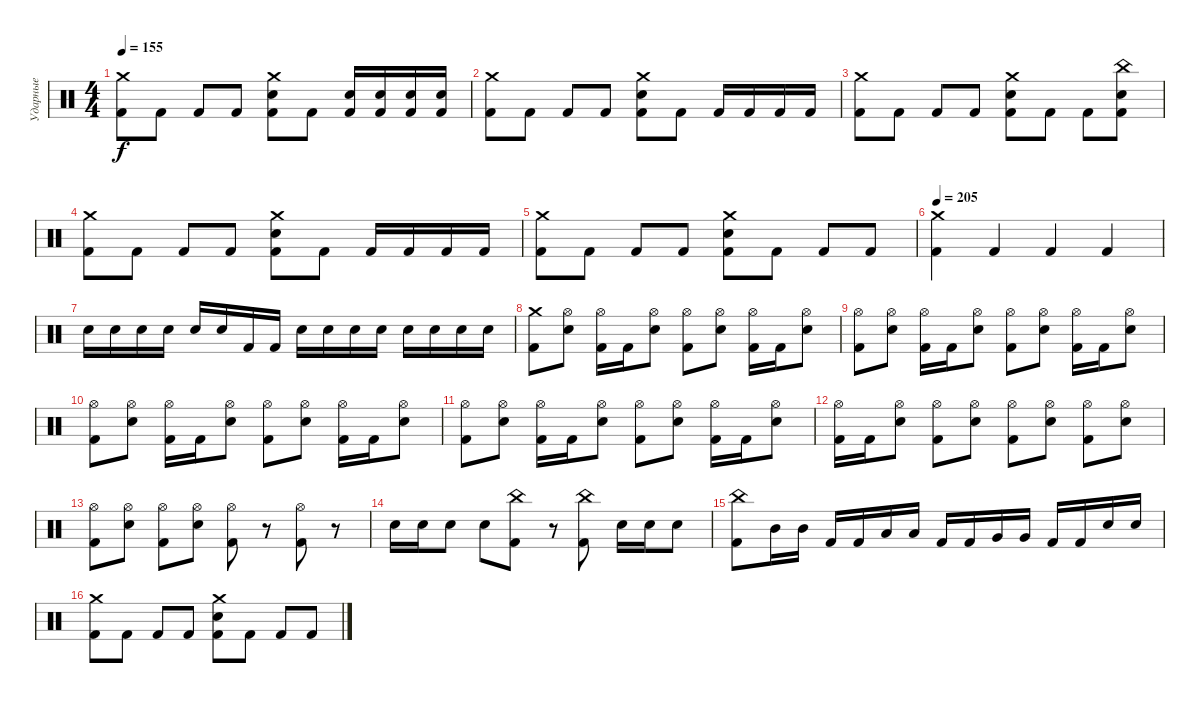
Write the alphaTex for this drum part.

\track ("Ударные" "Ударные") {instrument percussion}
\staff {score}
\articulation defaults
\ts (4 4)
\tempo 155
\clef neutral
\ks c
("Crash medium (hit)" "Kick (hit) 2").8{dy f} "Kick (hit) 2".8 "Kick (hit) 2".8 "Kick (hit) 2".8 ("Crash medium (hit)" "Electric Snare (hit)" "Kick (hit) 2").8 "Kick (hit) 2".8 ("Electric Snare (hit)" "Kick (hit) 2").16 ("Electric Snare (hit)" "Kick (hit) 2").16 ("Electric Snare (hit)" "Kick (hit) 2").16 ("Electric Snare (hit)" "Kick (hit) 2").16 |
("Crash medium (hit)" "Kick (hit) 2").8 "Kick (hit) 2".8 "Kick (hit) 2".8 "Kick (hit) 2".8 ("Crash medium (hit)" "Electric Snare (hit)" "Kick (hit) 2").8 "Kick (hit) 2".8 "Kick (hit) 2".16 "Kick (hit) 2".16 "Kick (hit) 2".16 "Kick (hit) 2".16 |
("Crash medium (hit)" "Kick (hit) 2").8 "Kick (hit) 2".8 "Kick (hit) 2".8 "Kick (hit) 2".8 ("Crash medium (hit)" "Electric Snare (hit)" "Kick (hit) 2").8 "Kick (hit) 2".8 "Kick (hit) 2".8 ("China (hit)" "Electric Snare (hit)" "Kick (hit) 2").8 |
("Crash medium (hit)" "Kick (hit) 2").8 "Kick (hit) 2".8 "Kick (hit) 2".8 "Kick (hit) 2".8 ("Crash medium (hit)" "Electric Snare (hit)" "Kick (hit) 2").8 "Kick (hit) 2".8 "Kick (hit) 2".16 "Kick (hit) 2".16 "Kick (hit) 2".16 "Kick (hit) 2".16 |
("Crash medium (hit)" "Kick (hit) 2").8 "Kick (hit) 2".8 "Kick (hit) 2".8 "Kick (hit) 2".8 ("Crash medium (hit)" "Electric Snare (hit)" "Kick (hit) 2").8 "Kick (hit) 2".8 "Kick (hit) 2".8 "Kick (hit) 2".8 |
\tempo 200
\tempo 205
("Crash medium (hit)" "Kick (hit) 2").4 "Kick (hit) 2".4 "Kick (hit) 2".4 "Kick (hit) 2".4 |
"Electric Snare (hit)".16 "Electric Snare (hit)".16 "Electric Snare (hit)".16 "Electric Snare (hit)".16 "Electric Snare (hit)".16 "Electric Snare (hit)".16 "Kick (hit) 2".16 "Kick (hit) 2".16 "Electric Snare (hit)".16 "Electric Snare (hit)".16 "Electric Snare (hit)".16 "Electric Snare (hit)".16 "Electric Snare (hit)".16 "Electric Snare (hit)".16 "Electric Snare (hit)".16 "Electric Snare (hit)".16 |
("Crash medium (hit)" "Kick (hit) 2").8 ("Hi-Hat (open)" "Electric Snare (hit)").8 ("Hi-Hat (open)" "Kick (hit) 2").16 "Kick (hit) 2".16 ("Hi-Hat (open)" "Electric Snare (hit)").8 ("Hi-Hat (open)" "Kick (hit) 2").8 ("Hi-Hat (open)" "Electric Snare (hit)").8 ("Hi-Hat (open)" "Kick (hit) 2").16 "Kick (hit) 2".16 ("Hi-Hat (open)" "Electric Snare (hit)").8 |
("Hi-Hat (open)" "Kick (hit) 2").8 ("Hi-Hat (open)" "Electric Snare (hit)").8 ("Hi-Hat (open)" "Kick (hit) 2").16 "Kick (hit) 2".16 ("Hi-Hat (open)" "Electric Snare (hit)").8 ("Hi-Hat (open)" "Kick (hit) 2").8 ("Hi-Hat (open)" "Electric Snare (hit)").8 ("Hi-Hat (open)" "Kick (hit) 2").16 "Kick (hit) 2".16 ("Hi-Hat (open)" "Electric Snare (hit)").8 |
("Hi-Hat (open)" "Kick (hit) 2").8 ("Hi-Hat (open)" "Electric Snare (hit)").8 ("Hi-Hat (open)" "Kick (hit) 2").16 "Kick (hit) 2".16 ("Hi-Hat (open)" "Electric Snare (hit)").8 ("Hi-Hat (open)" "Kick (hit) 2").8 ("Hi-Hat (open)" "Electric Snare (hit)").8 ("Hi-Hat (open)" "Kick (hit) 2").16 "Kick (hit) 2".16 ("Hi-Hat (open)" "Electric Snare (hit)").8 |
("Hi-Hat (open)" "Kick (hit) 2").8 ("Hi-Hat (open)" "Electric Snare (hit)").8 ("Hi-Hat (open)" "Kick (hit) 2").16 "Kick (hit) 2".16 ("Hi-Hat (open)" "Electric Snare (hit)").8 ("Hi-Hat (open)" "Kick (hit) 2").8 ("Hi-Hat (open)" "Electric Snare (hit)").8 ("Hi-Hat (open)" "Kick (hit) 2").16 "Kick (hit) 2".16 ("Hi-Hat (open)" "Electric Snare (hit)").8 |
("Hi-Hat (open)" "Kick (hit) 2").16 "Kick (hit) 2".16 ("Hi-Hat (open)" "Electric Snare (hit)").8 ("Hi-Hat (open)" "Kick (hit) 2").8 ("Hi-Hat (open)" "Electric Snare (hit)").8 ("Hi-Hat (open)" "Kick (hit) 2").8 ("Hi-Hat (open)" "Electric Snare (hit)").8 ("Hi-Hat (open)" "Kick (hit) 2").8 ("Hi-Hat (open)" "Electric Snare (hit)").8 |
("Hi-Hat (open)" "Kick (hit) 2").8 ("Hi-Hat (open)" "Electric Snare (hit)").8 ("Hi-Hat (open)" "Kick (hit) 2").8 ("Hi-Hat (open)" "Electric Snare (hit)").8 ("Hi-Hat (open)" "Kick (hit) 2").8 r.8 ("Hi-Hat (open)" "Kick (hit) 2").8 r.8 |
"Electric Snare (hit)".16 "Electric Snare (hit)".16 "Electric Snare (hit)".8 "Electric Snare (hit)".8 ("China (hit)" "Kick (hit) 2").8 r.8 ("China (hit)" "Kick (hit) 2").8 "Electric Snare (hit)".16 "Electric Snare (hit)".16 "Electric Snare (hit)".8 |
("China (hit)" "Kick (hit) 2").8 "Mid Tom (hit)".16 "Mid Tom (hit)".16 "Kick (hit) 2".16 "Kick (hit) 2".16 "Low Tom (hit)".16 "Low Tom (hit)".16 "Kick (hit) 2".16 "Kick (hit) 2".16 "Very Low Tom (hit)".16 "Very Low Tom (hit)".16 "Kick (hit) 2".16 "Kick (hit) 2".16 "Electric Snare (hit)".16 "Electric Snare (hit)".16 |
("Crash medium (hit)" "Kick (hit) 2").8 "Kick (hit) 2".8 "Kick (hit) 2".8 "Kick (hit) 2".8 ("Crash medium (hit)" "Electric Snare (hit)" "Kick (hit) 2").8 "Kick (hit) 2".8 "Kick (hit) 2".8 "Kick (hit) 2".8
